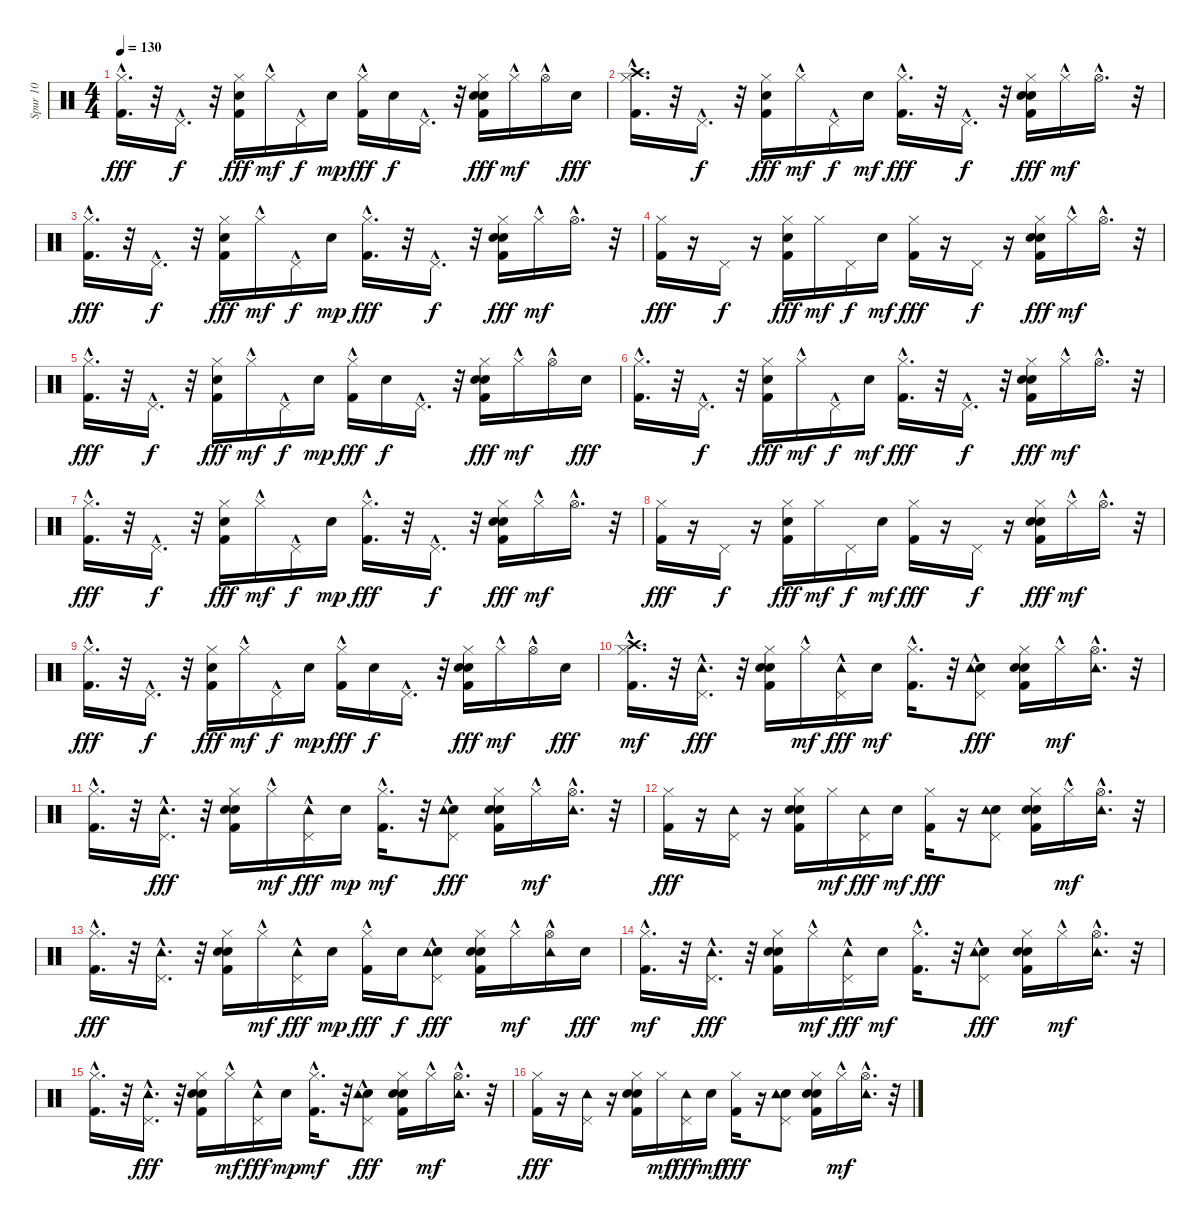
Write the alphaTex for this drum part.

\track ("Spur 10" "Spur 10") {instrument percussion}
\staff {score}
\articulation defaults
\ts (4 4)
\tempo 130
\clef neutral
\ks c
("Hi-Hat (closed)"{hac} "Kick (hit) 2").16{d dy fff} r.32 "Pedal Hi-Hat (hit)"{hac}.16{d dy f} r.32 ("Hi-Hat (closed)" "Snare (hit) 2" "Kick (hit) 2").16{dy fff} "Hi-Hat (closed)"{hac}.16{dy mf} "Pedal Hi-Hat (hit)"{hac}.16{dy f} "Electric Snare (hit)".16{dy mp} ("Hi-Hat (closed)"{hac} "Kick (hit) 2").16{dy fff} "Snare (hit) 2".16{dy f} "Pedal Hi-Hat (hit)"{hac}.16{d} r.32 ("Hi-Hat (closed)" "Hand Clap (hit)" "Snare (hit) 2" "Kick (hit) 2").16{dy fff} "Hi-Hat (closed)"{hac}.16{dy mf} "Hi-Hat (open)"{hac}.16 "Snare (hit) 2".16{dy fff} |
("Hi-Hat (closed)"{hac} "Crash high (hit)" "Kick (hit) 2").16{d} r.32 "Pedal Hi-Hat (hit)"{hac}.16{d dy f} r.32 ("Hi-Hat (closed)" "Kick (hit) 2" "Snare (hit) 2").16{dy fff} "Hi-Hat (closed)"{hac}.16{dy mf} "Pedal Hi-Hat (hit)"{hac}.16{dy f} "Electric Snare (hit)".16{dy mf} ("Hi-Hat (closed)"{hac} "Kick (hit) 2").16{d dy fff} r.32 "Pedal Hi-Hat (hit)"{hac}.16{d dy f} r.32 ("Hi-Hat (closed)" "Kick (hit) 2" "Hand Clap (hit)" "Snare (hit) 2").16{dy fff} "Hi-Hat (closed)"{hac}.16{dy mf} "Hi-Hat (open)"{hac}.16{d} r.32 |
("Hi-Hat (closed)"{hac} "Kick (hit) 2").16{d dy fff} r.32 "Pedal Hi-Hat (hit)"{hac}.16{d dy f} r.32 ("Hi-Hat (closed)" "Snare (hit) 2" "Kick (hit) 2").16{dy fff} "Hi-Hat (closed)"{hac}.16{dy mf} "Pedal Hi-Hat (hit)"{hac}.16{dy f} "Electric Snare (hit)".16{dy mp} ("Hi-Hat (closed)"{hac} "Kick (hit) 2").16{d dy fff} r.32 "Pedal Hi-Hat (hit)"{hac}.16{d dy f} r.32 ("Hi-Hat (closed)" "Kick (hit) 2" "Snare (hit) 2" "Hand Clap (hit)").16{dy fff} "Hi-Hat (closed)"{hac}.16{dy mf} "Hi-Hat (open)"{hac}.16{d} r.32 |
("Hi-Hat (closed)" "Kick (hit) 2").16{dy fff} r.16 "Pedal Hi-Hat (hit)".16{dy f} r.16 ("Hi-Hat (closed)" "Snare (hit) 2" "Kick (hit) 2").16{dy fff} "Hi-Hat (closed)".16{dy mf} "Pedal Hi-Hat (hit)".16{dy f} "Electric Snare (hit)".16{dy mf} ("Hi-Hat (closed)" "Kick (hit) 2").16{dy fff} r.16 "Pedal Hi-Hat (hit)".16{dy f} r.16 ("Hi-Hat (closed)" "Snare (hit) 2" "Hand Clap (hit)" "Kick (hit) 2").16{dy fff} "Hi-Hat (closed)"{hac}.16{dy mf} "Hi-Hat (open)"{hac}.16{d} r.32 |
("Hi-Hat (closed)"{hac} "Kick (hit) 2").16{d dy fff} r.32 "Pedal Hi-Hat (hit)"{hac}.16{d dy f} r.32 ("Hi-Hat (closed)" "Snare (hit) 2" "Kick (hit) 2").16{dy fff} "Hi-Hat (closed)"{hac}.16{dy mf} "Pedal Hi-Hat (hit)"{hac}.16{dy f} "Electric Snare (hit)".16{dy mp} ("Hi-Hat (closed)"{hac} "Kick (hit) 2").16{dy fff} "Snare (hit) 2".16{dy f} "Pedal Hi-Hat (hit)"{hac}.16{d} r.32 ("Hi-Hat (closed)" "Hand Clap (hit)" "Snare (hit) 2" "Kick (hit) 2").16{dy fff} "Hi-Hat (closed)"{hac}.16{dy mf} "Hi-Hat (open)"{hac}.16 "Snare (hit) 2".16{dy fff} |
("Hi-Hat (closed)"{hac} "Kick (hit) 2").16{d} r.32 "Pedal Hi-Hat (hit)"{hac}.16{d dy f} r.32 ("Hi-Hat (closed)" "Kick (hit) 2" "Snare (hit) 2").16{dy fff} "Hi-Hat (closed)"{hac}.16{dy mf} "Pedal Hi-Hat (hit)"{hac}.16{dy f} "Electric Snare (hit)".16{dy mf} ("Hi-Hat (closed)"{hac} "Kick (hit) 2").16{d dy fff} r.32 "Pedal Hi-Hat (hit)"{hac}.16{d dy f} r.32 ("Hi-Hat (closed)" "Kick (hit) 2" "Hand Clap (hit)" "Snare (hit) 2").16{dy fff} "Hi-Hat (closed)"{hac}.16{dy mf} "Hi-Hat (open)"{hac}.16{d} r.32 |
("Hi-Hat (closed)"{hac} "Kick (hit) 2").16{d dy fff} r.32 "Pedal Hi-Hat (hit)"{hac}.16{d dy f} r.32 ("Hi-Hat (closed)" "Snare (hit) 2" "Kick (hit) 2").16{dy fff} "Hi-Hat (closed)"{hac}.16{dy mf} "Pedal Hi-Hat (hit)"{hac}.16{dy f} "Electric Snare (hit)".16{dy mp} ("Hi-Hat (closed)"{hac} "Kick (hit) 2").16{d dy fff} r.32 "Pedal Hi-Hat (hit)"{hac}.16{d dy f} r.32 ("Hi-Hat (closed)" "Kick (hit) 2" "Snare (hit) 2" "Hand Clap (hit)").16{dy fff} "Hi-Hat (closed)"{hac}.16{dy mf} "Hi-Hat (open)"{hac}.16{d} r.32 |
("Hi-Hat (closed)" "Kick (hit) 2").16{dy fff} r.16 "Pedal Hi-Hat (hit)".16{dy f} r.16 ("Hi-Hat (closed)" "Snare (hit) 2" "Kick (hit) 2").16{dy fff} "Hi-Hat (closed)".16{dy mf} "Pedal Hi-Hat (hit)".16{dy f} "Electric Snare (hit)".16{dy mf} ("Hi-Hat (closed)" "Kick (hit) 2").16{dy fff} r.16 "Pedal Hi-Hat (hit)".16{dy f} r.16 ("Hi-Hat (closed)" "Snare (hit) 2" "Hand Clap (hit)" "Kick (hit) 2").16{dy fff} "Hi-Hat (closed)"{hac}.16{dy mf} "Hi-Hat (open)"{hac}.16{d} r.32 |
("Hi-Hat (closed)"{hac} "Kick (hit) 2").16{d dy fff} r.32 "Pedal Hi-Hat (hit)"{hac}.16{d dy f} r.32 ("Hi-Hat (closed)" "Snare (hit) 2" "Kick (hit) 2").16{dy fff} "Hi-Hat (closed)"{hac}.16{dy mf} "Pedal Hi-Hat (hit)"{hac}.16{dy f} "Electric Snare (hit)".16{dy mp} ("Hi-Hat (closed)"{hac} "Kick (hit) 2").16{dy fff} "Snare (hit) 2".16{dy f} "Pedal Hi-Hat (hit)"{hac}.16{d} r.32 ("Hi-Hat (closed)" "Hand Clap (hit)" "Snare (hit) 2" "Kick (hit) 2").16{dy fff} "Hi-Hat (closed)"{hac}.16{dy mf} "Hi-Hat (open)"{hac}.16 "Snare (hit) 2".16{dy fff} |
("Crash high (hit)" "Kick (hit) 2" "Hi-Hat (closed)"{hac}).16{d dy mf} r.32 ("Tambourine (hit)"{hac} "Pedal Hi-Hat (hit)"{hac}).16{d dy fff} r.32 ("Hand Clap (hit)" "Kick (hit) 2" "Hi-Hat (closed)" "Snare (hit) 2").16 "Hi-Hat (closed)"{hac}.16{dy mf} ("Tambourine (hit)"{hac} "Pedal Hi-Hat (hit)"{hac}).16{dy fff} "Electric Snare (hit)".16{dy mf} ("Kick (hit) 2" "Hi-Hat (closed)"{hac}).16{d} r.32 ("Hand Clap (hit)" "Tambourine (hit)"{hac} "Pedal Hi-Hat (hit)"{hac}).8{dy fff} ("Kick (hit) 2" "Hi-Hat (closed)" "Hand Clap (hit)" "Snare (hit) 2").16 "Hi-Hat (closed)"{hac}.16{dy mf} ("Tambourine (hit)"{hac} "Hi-Hat (open)"{hac}).16{d} r.32 |
("Kick (hit) 2" "Hi-Hat (closed)"{hac}).16{d} r.32 ("Tambourine (hit)"{hac} "Pedal Hi-Hat (hit)"{hac}).16{d dy fff} r.32 ("Hand Clap (hit)" "Hi-Hat (closed)" "Snare (hit) 2" "Kick (hit) 2").16 "Hi-Hat (closed)"{hac}.16{dy mf} ("Tambourine (hit)"{hac} "Pedal Hi-Hat (hit)"{hac}).16{dy fff} "Electric Snare (hit)".16{dy mp} ("Kick (hit) 2" "Hi-Hat (closed)"{hac}).16{d dy mf} r.32 ("Hand Clap (hit)" "Tambourine (hit)"{hac} "Pedal Hi-Hat (hit)"{hac}).8{dy fff} ("Hand Clap (hit)" "Hi-Hat (closed)" "Kick (hit) 2" "Snare (hit) 2").16 "Hi-Hat (closed)"{hac}.16{dy mf} ("Tambourine (hit)"{hac} "Hi-Hat (open)"{hac}).16{d} r.32 |
("Hi-Hat (closed)" "Kick (hit) 2").16{dy fff} r.16 ("Tambourine (hit)" "Pedal Hi-Hat (hit)").16 r.16 ("Hand Clap (hit)" "Snare (hit) 2" "Hi-Hat (closed)" "Kick (hit) 2").16 "Hi-Hat (closed)".16{dy mf} ("Tambourine (hit)" "Pedal Hi-Hat (hit)").16{dy fff} "Electric Snare (hit)".16{dy mf} ("Hi-Hat (closed)" "Kick (hit) 2").16{dy fff} r.16 ("Hand Clap (hit)" "Tambourine (hit)" "Pedal Hi-Hat (hit)").8 ("Hand Clap (hit)" "Snare (hit) 2" "Hi-Hat (closed)" "Kick (hit) 2").16 "Hi-Hat (closed)"{hac}.16{dy mf} ("Tambourine (hit)" "Hi-Hat (open)"{hac}).16{d} r.32 |
("Hi-Hat (closed)"{hac} "Kick (hit) 2").16{d dy fff} r.32 ("Tambourine (hit)"{hac} "Pedal Hi-Hat (hit)"{hac}).16{d} r.32 ("Hand Clap (hit)" "Hi-Hat (closed)" "Snare (hit) 2" "Kick (hit) 2").16 "Hi-Hat (closed)"{hac}.16{dy mf} ("Tambourine (hit)"{hac} "Pedal Hi-Hat (hit)"{hac}).16{dy fff} "Electric Snare (hit)".16{dy mp} ("Hi-Hat (closed)"{hac} "Kick (hit) 2").16{dy fff} "Snare (hit) 2".16{dy f} ("Hand Clap (hit)" "Tambourine (hit)"{hac} "Pedal Hi-Hat (hit)"{hac}).8{dy fff} ("Hand Clap (hit)" "Snare (hit) 2" "Hi-Hat (closed)" "Kick (hit) 2").16 "Hi-Hat (closed)"{hac}.16{dy mf} ("Tambourine (hit)"{hac} "Hi-Hat (open)"{hac}).16 "Snare (hit) 2".16{dy fff} |
("Kick (hit) 2" "Hi-Hat (closed)"{hac}).16{d dy mf} r.32 ("Tambourine (hit)"{hac} "Pedal Hi-Hat (hit)"{hac}).16{d dy fff} r.32 ("Hand Clap (hit)" "Kick (hit) 2" "Hi-Hat (closed)" "Snare (hit) 2").16 "Hi-Hat (closed)"{hac}.16{dy mf} ("Tambourine (hit)"{hac} "Pedal Hi-Hat (hit)"{hac}).16{dy fff} "Electric Snare (hit)".16{dy mf} ("Kick (hit) 2" "Hi-Hat (closed)"{hac}).16{d} r.32 ("Hand Clap (hit)" "Tambourine (hit)"{hac} "Pedal Hi-Hat (hit)"{hac}).8{dy fff} ("Hand Clap (hit)" "Kick (hit) 2" "Hi-Hat (closed)" "Snare (hit) 2").16 "Hi-Hat (closed)"{hac}.16{dy mf} ("Tambourine (hit)"{hac} "Hi-Hat (open)"{hac}).16{d} r.32 |
("Kick (hit) 2" "Hi-Hat (closed)"{hac}).16{d} r.32 ("Tambourine (hit)"{hac} "Pedal Hi-Hat (hit)"{hac}).16{d dy fff} r.32 ("Hand Clap (hit)" "Hi-Hat (closed)" "Snare (hit) 2" "Kick (hit) 2").16 "Hi-Hat (closed)"{hac}.16{dy mf} ("Tambourine (hit)"{hac} "Pedal Hi-Hat (hit)"{hac}).16{dy fff} "Electric Snare (hit)".16{dy mp} ("Kick (hit) 2" "Hi-Hat (closed)"{hac}).16{d dy mf} r.32 ("Hand Clap (hit)" "Tambourine (hit)"{hac} "Pedal Hi-Hat (hit)"{hac}).8{dy fff} ("Hand Clap (hit)" "Hi-Hat (closed)" "Kick (hit) 2" "Snare (hit) 2").16 "Hi-Hat (closed)"{hac}.16{dy mf} ("Tambourine (hit)"{hac} "Hi-Hat (open)"{hac}).16{d} r.32 |
("Hi-Hat (closed)" "Kick (hit) 2").16{dy fff} r.16 ("Tambourine (hit)" "Pedal Hi-Hat (hit)").16 r.16 ("Hand Clap (hit)" "Snare (hit) 2" "Hi-Hat (closed)" "Kick (hit) 2").16 "Hi-Hat (closed)".16{dy mf} ("Tambourine (hit)" "Pedal Hi-Hat (hit)").16{dy fff} "Electric Snare (hit)".16{dy mf} ("Hi-Hat (closed)" "Kick (hit) 2").16{dy fff} r.16 ("Hand Clap (hit)" "Tambourine (hit)" "Pedal Hi-Hat (hit)").8 ("Hand Clap (hit)" "Snare (hit) 2" "Hi-Hat (closed)" "Kick (hit) 2").16 "Hi-Hat (closed)"{hac}.16{dy mf} ("Tambourine (hit)" "Hi-Hat (open)"{hac}).16{d} r.32
